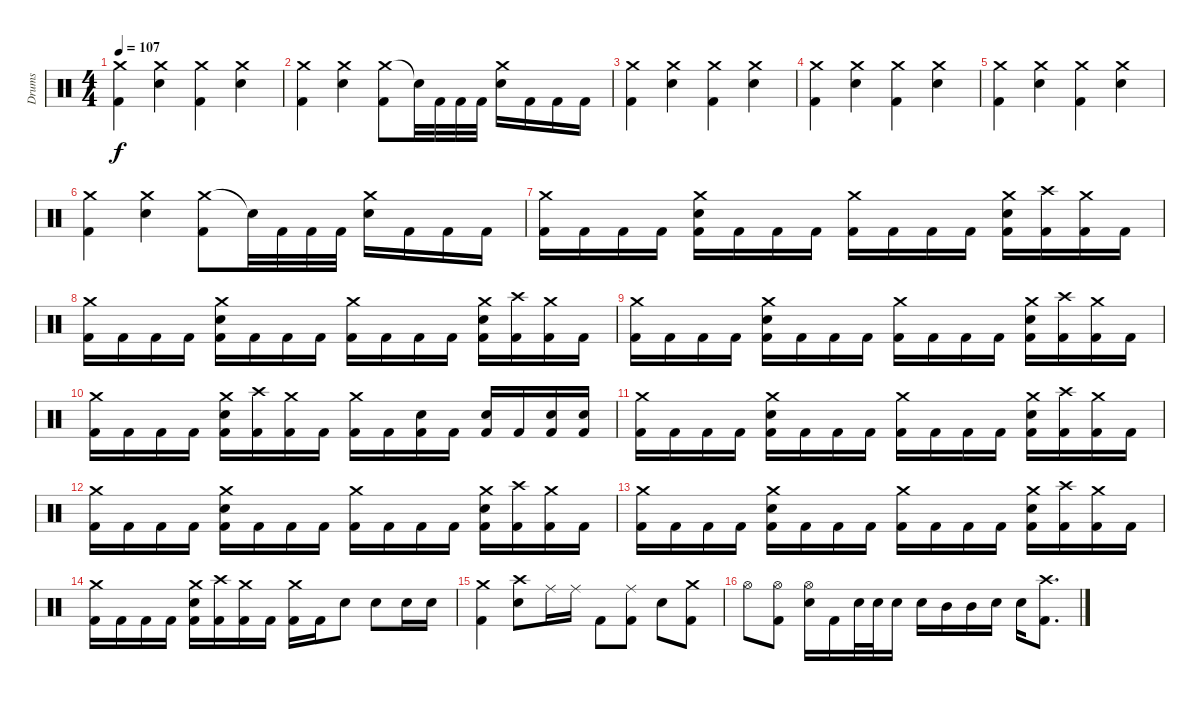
\track ("Drums" "Drums") {instrument percussion}
\staff {score}
\articulation defaults
\ts (4 4)
\tempo 107
\clef neutral
\ks c
("Crash medium (hit)" "Kick (hit) 2").4{dy f} ("Crash medium (hit)" "Electric Snare (hit)").4 ("Crash medium (hit)" "Kick (hit) 2").4 ("Crash medium (hit)" "Electric Snare (hit)").4 |
("Crash medium (hit)" "Kick (hit) 2").4 ("Crash medium (hit)" "Electric Snare (hit)").4 ("Crash medium (hit)" "Kick (hit) 2").8 "Snare (hit)"{t}.32 "Kick (hit) 2".32 "Kick (hit) 2".32 "Kick (hit) 2".32 ("Crash medium (hit)" "Electric Snare (hit)").16 "Kick (hit) 2".16 "Kick (hit) 2".16 "Kick (hit) 2".16 |
("Crash medium (hit)" "Kick (hit) 2").4 ("Crash medium (hit)" "Electric Snare (hit)").4 ("Crash medium (hit)" "Kick (hit) 2").4 ("Crash medium (hit)" "Electric Snare (hit)").4 |
("Crash medium (hit)" "Kick (hit) 2").4 ("Crash medium (hit)" "Electric Snare (hit)").4 ("Crash medium (hit)" "Kick (hit) 2").4 ("Crash medium (hit)" "Electric Snare (hit)").4 |
("Crash medium (hit)" "Kick (hit) 2").4 ("Crash medium (hit)" "Electric Snare (hit)").4 ("Crash medium (hit)" "Kick (hit) 2").4 ("Crash medium (hit)" "Electric Snare (hit)").4 |
("Crash medium (hit)" "Kick (hit) 2").4 ("Crash medium (hit)" "Electric Snare (hit)").4 ("Crash medium (hit)" "Kick (hit) 2").8 "Snare (hit)"{t}.32 "Kick (hit) 2".32 "Kick (hit) 2".32 "Kick (hit) 2".32 ("Crash medium (hit)" "Electric Snare (hit)").16 "Kick (hit) 2".16 "Kick (hit) 2".16 "Kick (hit) 2".16 |
("Crash medium (hit)" "Kick (hit) 2").16 "Kick (hit) 2".16 "Kick (hit) 2".16 "Kick (hit) 2".16 ("Crash medium (hit)" "Electric Snare (hit)" "Kick (hit) 2").16 "Kick (hit) 2".16 "Kick (hit) 2".16 "Kick (hit) 2".16 ("Crash medium (hit)" "Kick (hit) 2").16 "Kick (hit) 2".16 "Kick (hit) 2".16 "Kick (hit) 2".16 ("Crash medium (hit)" "Electric Snare (hit)" "Kick (hit) 2").16 ("Crash high (hit)" "Kick (hit) 2").16 ("Crash medium (hit)" "Kick (hit) 2").16 "Kick (hit) 2".16 |
("Crash medium (hit)" "Kick (hit) 2").16 "Kick (hit) 2".16 "Kick (hit) 2".16 "Kick (hit) 2".16 ("Crash medium (hit)" "Electric Snare (hit)" "Kick (hit) 2").16 "Kick (hit) 2".16 "Kick (hit) 2".16 "Kick (hit) 2".16 ("Crash medium (hit)" "Kick (hit) 2").16 "Kick (hit) 2".16 "Kick (hit) 2".16 "Kick (hit) 2".16 ("Crash medium (hit)" "Electric Snare (hit)" "Kick (hit) 2").16 ("Crash high (hit)" "Kick (hit) 2").16 ("Crash medium (hit)" "Kick (hit) 2").16 "Kick (hit) 2".16 |
("Crash medium (hit)" "Kick (hit) 2").16 "Kick (hit) 2".16 "Kick (hit) 2".16 "Kick (hit) 2".16 ("Crash medium (hit)" "Electric Snare (hit)" "Kick (hit) 2").16 "Kick (hit) 2".16 "Kick (hit) 2".16 "Kick (hit) 2".16 ("Crash medium (hit)" "Kick (hit) 2").16 "Kick (hit) 2".16 "Kick (hit) 2".16 "Kick (hit) 2".16 ("Crash medium (hit)" "Electric Snare (hit)" "Kick (hit) 2").16 ("Crash high (hit)" "Kick (hit) 2").16 ("Crash medium (hit)" "Kick (hit) 2").16 "Kick (hit) 2".16 |
("Crash medium (hit)" "Kick (hit) 2").16 "Kick (hit) 2".16 "Kick (hit) 2".16 "Kick (hit) 2".16 ("Crash medium (hit)" "Electric Snare (hit)" "Kick (hit) 2").16 ("Crash high (hit)" "Kick (hit) 2").16 ("Crash medium (hit)" "Kick (hit) 2").16 "Kick (hit) 2".16 ("Crash medium (hit)" "Kick (hit) 2").16 "Kick (hit) 2".16 ("Electric Snare (hit)" "Kick (hit) 2").16 "Kick (hit) 2".16 ("Electric Snare (hit)" "Kick (hit) 2").16 "Kick (hit) 2".16 ("Electric Snare (hit)" "Kick (hit) 2").16 ("Electric Snare (hit)" "Kick (hit) 2").16 |
("Crash medium (hit)" "Kick (hit) 2").16 "Kick (hit) 2".16 "Kick (hit) 2".16 "Kick (hit) 2".16 ("Crash medium (hit)" "Electric Snare (hit)" "Kick (hit) 2").16 "Kick (hit) 2".16 "Kick (hit) 2".16 "Kick (hit) 2".16 ("Crash medium (hit)" "Kick (hit) 2").16 "Kick (hit) 2".16 "Kick (hit) 2".16 "Kick (hit) 2".16 ("Crash medium (hit)" "Electric Snare (hit)" "Kick (hit) 2").16 ("Crash high (hit)" "Kick (hit) 2").16 ("Crash medium (hit)" "Kick (hit) 2").16 "Kick (hit) 2".16 |
("Crash medium (hit)" "Kick (hit) 2").16 "Kick (hit) 2".16 "Kick (hit) 2".16 "Kick (hit) 2".16 ("Crash medium (hit)" "Electric Snare (hit)" "Kick (hit) 2").16 "Kick (hit) 2".16 "Kick (hit) 2".16 "Kick (hit) 2".16 ("Crash medium (hit)" "Kick (hit) 2").16 "Kick (hit) 2".16 "Kick (hit) 2".16 "Kick (hit) 2".16 ("Crash medium (hit)" "Electric Snare (hit)" "Kick (hit) 2").16 ("Crash high (hit)" "Kick (hit) 2").16 ("Crash medium (hit)" "Kick (hit) 2").16 "Kick (hit) 2".16 |
("Crash medium (hit)" "Kick (hit) 2").16 "Kick (hit) 2".16 "Kick (hit) 2".16 "Kick (hit) 2".16 ("Crash medium (hit)" "Electric Snare (hit)" "Kick (hit) 2").16 "Kick (hit) 2".16 "Kick (hit) 2".16 "Kick (hit) 2".16 ("Crash medium (hit)" "Kick (hit) 2").16 "Kick (hit) 2".16 "Kick (hit) 2".16 "Kick (hit) 2".16 ("Crash medium (hit)" "Electric Snare (hit)" "Kick (hit) 2").16 ("Crash high (hit)" "Kick (hit) 2").16 ("Crash medium (hit)" "Kick (hit) 2").16 "Kick (hit) 2".16 |
("Crash medium (hit)" "Kick (hit) 2").16 "Kick (hit) 2".16 "Kick (hit) 2".16 "Kick (hit) 2".16 ("Crash medium (hit)" "Electric Snare (hit)" "Kick (hit) 2").16 ("Crash high (hit)" "Kick (hit) 2").16 ("Crash medium (hit)" "Kick (hit) 2").16 "Kick (hit) 2".16 ("Crash medium (hit)" "Kick (hit) 2").16 "Kick (hit) 2".16 "Electric Snare (hit)".8 "Electric Snare (hit)".8 "Electric Snare (hit)".16 "Electric Snare (hit)".16 |
("Crash medium (hit)" "Kick (hit) 2").4 ("Crash high (hit)" "Electric Snare (hit)").8 "Ride (middle)".16 "Ride (middle)".16 "Kick (hit) 2".8 ("Ride (middle)" "Kick (hit) 2").8 "Electric Snare (hit)".8 ("Crash medium (hit)" "Kick (hit) 2").8 |
"Hi-Hat (open)".8 ("Hi-Hat (open)" "Kick (hit) 2").8 ("Hi-Hat (open)" "Electric Snare (hit)").16 "Kick (hit) 2".16 "Electric Snare (hit)".32 "Electric Snare (hit)".32 "Electric Snare (hit)".16 "Electric Snare (hit)".16 "Mid Tom (hit)".16 "Mid Tom (hit)".16 "Electric Snare (hit)".16 "Electric Snare (hit)".16 ("Crash high (hit)" "Kick (hit) 2").8{d}
